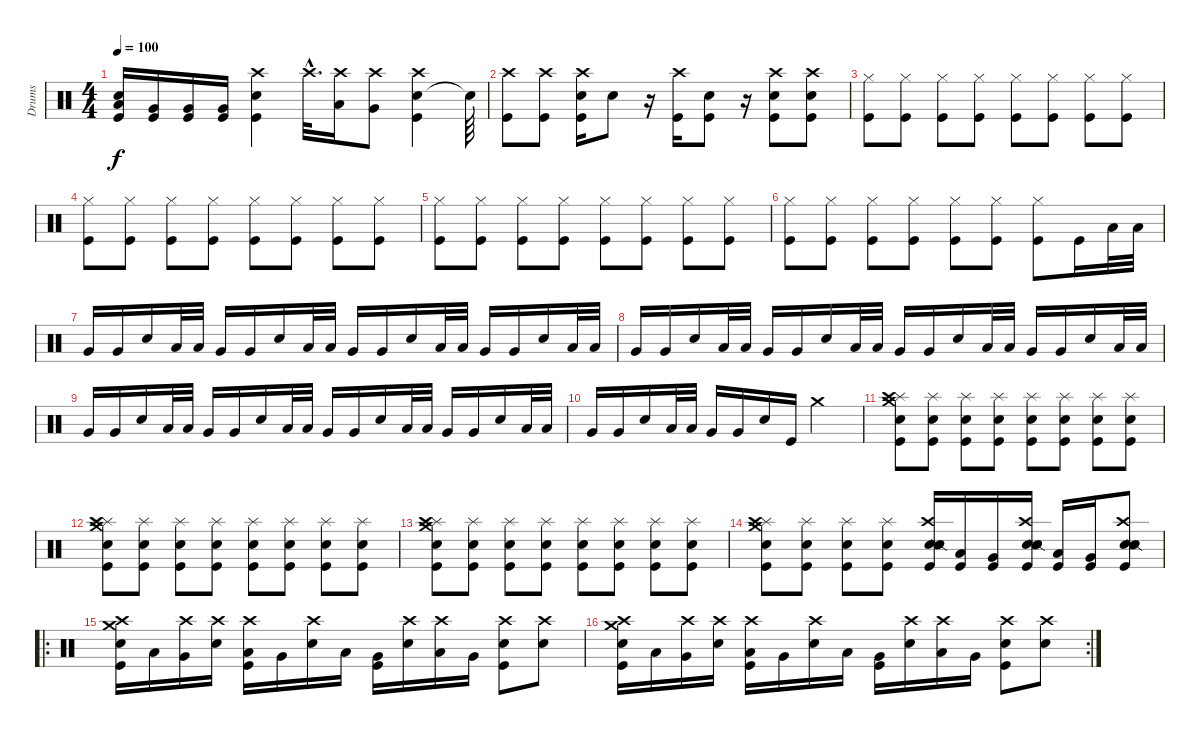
\track ("Drums" "Drums") {instrument percussion}
\staff {score}
\articulation defaults
\ts (4 4)
\tempo 100
\clef neutral
\ks c
("Low Tom (hit)" "Electric Snare (hit)" "Kick (hit)").16{dy f} ("Very Low Tom (hit)" "Kick (hit)").16 ("Very Low Tom (hit)" "Kick (hit)").16 ("Very Low Tom (hit)" "Kick (hit)").16 ("Crash high (hit)" "Electric Snare (hit)" "Kick (hit)").4 "Crash high (hit)"{hac}.32{d} ("Low Tom (hit)" "Crash high (hit)").16 ("Very Low Tom (hit)" "Crash high (hit)").8 ("Electric Snare (hit)" "Crash high (hit)" "Kick (hit)").4 "Snare (hit)"{t}.64 |
("Crash high (hit)" "Kick (hit)").8 ("Kick (hit)" "Crash high (hit)").8 ("Crash high (hit)" "Kick (hit)" "Electric Snare (hit)").16 "Electric Snare (hit)".8 r.16 ("Kick (hit)" "Crash high (hit)").16 ("Electric Snare (hit)" "Kick (hit)").8 r.16 ("Electric Snare (hit)" "Kick (hit)" "Crash high (hit)").8 ("Electric Snare (hit)" "Kick (hit)" "Crash high (hit)").8 |
("Kick (hit)" "Hi-Hat (closed)").8 ("Kick (hit)" "Hi-Hat (closed)").8 ("Kick (hit)" "Hi-Hat (closed)").8 ("Kick (hit)" "Hi-Hat (closed)").8 ("Kick (hit)" "Hi-Hat (closed)").8 ("Kick (hit)" "Hi-Hat (closed)").8 ("Kick (hit)" "Hi-Hat (closed)").8 ("Kick (hit)" "Hi-Hat (closed)").8 |
("Kick (hit)" "Hi-Hat (closed)").8 ("Kick (hit)" "Hi-Hat (closed)").8 ("Kick (hit)" "Hi-Hat (closed)").8 ("Kick (hit)" "Hi-Hat (closed)").8 ("Kick (hit)" "Hi-Hat (closed)").8 ("Kick (hit)" "Hi-Hat (closed)").8 ("Kick (hit)" "Hi-Hat (closed)").8 ("Kick (hit)" "Hi-Hat (closed)").8 |
("Kick (hit)" "Hi-Hat (closed)").8 ("Kick (hit)" "Hi-Hat (closed)").8 ("Kick (hit)" "Hi-Hat (closed)").8 ("Kick (hit)" "Hi-Hat (closed)").8 ("Kick (hit)" "Hi-Hat (closed)").8 ("Kick (hit)" "Hi-Hat (closed)").8 ("Kick (hit)" "Hi-Hat (closed)").8 ("Kick (hit)" "Hi-Hat (closed)").8 |
("Kick (hit)" "Hi-Hat (closed)").8 ("Kick (hit)" "Hi-Hat (closed)").8 ("Kick (hit)" "Hi-Hat (closed)").8 ("Kick (hit)" "Hi-Hat (closed)").8 ("Kick (hit)" "Hi-Hat (closed)").8 ("Kick (hit)" "Hi-Hat (closed)").8 ("Kick (hit)" "Hi-Hat (closed)").8 "Kick (hit)".16 "Low Tom (hit)".32 "Low Tom (hit)".32 |
"Very Low Tom (hit)".16 "Very Low Tom (hit)".16 "Electric Snare (hit)".16 "Low Tom (hit)".32 "Low Tom (hit)".32 "Very Low Tom (hit)".16 "Very Low Tom (hit)".16 "Electric Snare (hit)".16 "Low Tom (hit)".32 "Low Tom (hit)".32 "Very Low Tom (hit)".16 "Very Low Tom (hit)".16 "Electric Snare (hit)".16 "Low Tom (hit)".32 "Low Tom (hit)".32 "Very Low Tom (hit)".16 "Very Low Tom (hit)".16 "Electric Snare (hit)".16 "Low Tom (hit)".32 "Low Tom (hit)".32 |
"Very Low Tom (hit)".16 "Very Low Tom (hit)".16 "Electric Snare (hit)".16 "Low Tom (hit)".32 "Low Tom (hit)".32 "Very Low Tom (hit)".16 "Very Low Tom (hit)".16 "Electric Snare (hit)".16 "Low Tom (hit)".32 "Low Tom (hit)".32 "Very Low Tom (hit)".16 "Very Low Tom (hit)".16 "Electric Snare (hit)".16 "Low Tom (hit)".32 "Low Tom (hit)".32 "Very Low Tom (hit)".16 "Very Low Tom (hit)".16 "Electric Snare (hit)".16 "Low Tom (hit)".32 "Low Tom (hit)".32 |
"Very Low Tom (hit)".16 "Very Low Tom (hit)".16 "Electric Snare (hit)".16 "Low Tom (hit)".32 "Low Tom (hit)".32 "Very Low Tom (hit)".16 "Very Low Tom (hit)".16 "Electric Snare (hit)".16 "Low Tom (hit)".32 "Low Tom (hit)".32 "Very Low Tom (hit)".16 "Very Low Tom (hit)".16 "Electric Snare (hit)".16 "Low Tom (hit)".32 "Low Tom (hit)".32 "Very Low Tom (hit)".16 "Very Low Tom (hit)".16 "Electric Snare (hit)".16 "Low Tom (hit)".32 "Low Tom (hit)".32 |
"Very Low Tom (hit)".16 "Very Low Tom (hit)".16 "Electric Snare (hit)".16 "Low Tom (hit)".32 "Low Tom (hit)".32 "Very Low Tom (hit)".16 "Very Low Tom (hit)".16 "Electric Snare (hit)".16 "Kick (hit)".16 "Crash medium (hit)".2 |
("Electric Snare (hit)" "Kick (hit)" "Splash (hit)" "Crash high (hit)" "Crash medium (hit)").8 ("Electric Snare (hit)" "Kick (hit)" "Splash (hit)").8 ("Electric Snare (hit)" "Kick (hit)" "Splash (hit)").8 ("Electric Snare (hit)" "Kick (hit)" "Splash (hit)").8 ("Electric Snare (hit)" "Kick (hit)" "Splash (hit)").8 ("Electric Snare (hit)" "Kick (hit)" "Splash (hit)").8 ("Electric Snare (hit)" "Kick (hit)" "Splash (hit)").8 ("Electric Snare (hit)" "Kick (hit)" "Splash (hit)").8 |
("Electric Snare (hit)" "Kick (hit)" "Splash (hit)" "Crash medium (hit)" "Crash high (hit)").8 ("Electric Snare (hit)" "Kick (hit)" "Splash (hit)").8 ("Electric Snare (hit)" "Kick (hit)" "Splash (hit)").8 ("Electric Snare (hit)" "Kick (hit)" "Splash (hit)").8 ("Electric Snare (hit)" "Kick (hit)" "Splash (hit)").8 ("Electric Snare (hit)" "Kick (hit)" "Splash (hit)").8 ("Electric Snare (hit)" "Kick (hit)" "Splash (hit)").8 ("Electric Snare (hit)" "Kick (hit)" "Splash (hit)").8 |
("Electric Snare (hit)" "Kick (hit)" "Splash (hit)" "Crash high (hit)" "Crash medium (hit)").8 ("Electric Snare (hit)" "Kick (hit)" "Splash (hit)").8 ("Electric Snare (hit)" "Kick (hit)" "Splash (hit)").8 ("Electric Snare (hit)" "Kick (hit)" "Splash (hit)").8 ("Electric Snare (hit)" "Kick (hit)" "Splash (hit)").8 ("Electric Snare (hit)" "Kick (hit)" "Splash (hit)").8 ("Electric Snare (hit)" "Kick (hit)" "Splash (hit)").8 ("Electric Snare (hit)" "Kick (hit)" "Splash (hit)").8 |
("Electric Snare (hit)" "Kick (hit)" "Splash (hit)" "Crash medium (hit)" "Crash high (hit)").8 ("Electric Snare (hit)" "Kick (hit)" "Splash (hit)").8 ("Electric Snare (hit)" "Kick (hit)" "Splash (hit)").8 ("Electric Snare (hit)" "Kick (hit)" "Splash (hit)").8 ("Electric Snare (hit)" "Electric Snare (hit)" "Snare (side stick) 2" "Kick (hit)" "Crash high (hit)").16 ("Low Tom (hit)" "Kick (hit)").16 ("Very Low Tom (hit)" "Kick (hit)").16 ("Electric Snare (hit)" "Electric Snare (hit)" "Snare (side stick) 2" "Kick (hit)" "Crash high (hit)").16 ("Low Tom (hit)" "Kick (hit)").16 ("Very Low Tom (hit)" "Kick (hit)").16 ("Electric Snare (hit)" "Electric Snare (hit)" "Snare (side stick) 2" "Kick (hit)" "Crash high (hit)").8 |
\ro
("Crash medium (hit)" "Electric Snare (hit)" "Crash high (hit)" "Kick (hit)").16 "Low Tom (hit)".16 ("Very Low Tom (hit)" "Crash high (hit)").16 ("Electric Snare (hit)" "Crash high (hit)").16 ("Low Tom (hit)" "Crash high (hit)" "Kick (hit)").16 "Very Low Tom (hit)".16 ("Electric Snare (hit)" "Crash high (hit)").16 "Low Tom (hit)".16 ("Very Low Tom (hit)" "Kick (hit)").16 ("Electric Snare (hit)" "Crash high (hit)").16 ("Low Tom (hit)" "Crash high (hit)").16 "Very Low Tom (hit)".16 ("Electric Snare (hit)" "Crash high (hit)" "Kick (hit)").8 ("Electric Snare (hit)" "Crash high (hit)").8 |
\rc 2
("Crash medium (hit)" "Electric Snare (hit)" "Crash high (hit)" "Kick (hit)").16 "Low Tom (hit)".16 ("Very Low Tom (hit)" "Crash high (hit)").16 ("Electric Snare (hit)" "Crash high (hit)").16 ("Low Tom (hit)" "Crash high (hit)" "Kick (hit)").16 "Very Low Tom (hit)".16 ("Electric Snare (hit)" "Crash high (hit)").16 "Low Tom (hit)".16 ("Very Low Tom (hit)" "Kick (hit)").16 ("Electric Snare (hit)" "Crash high (hit)").16 ("Low Tom (hit)" "Crash high (hit)").16 "Very Low Tom (hit)".16 ("Electric Snare (hit)" "Crash high (hit)" "Kick (hit)").8 ("Electric Snare (hit)" "Crash high (hit)").8
